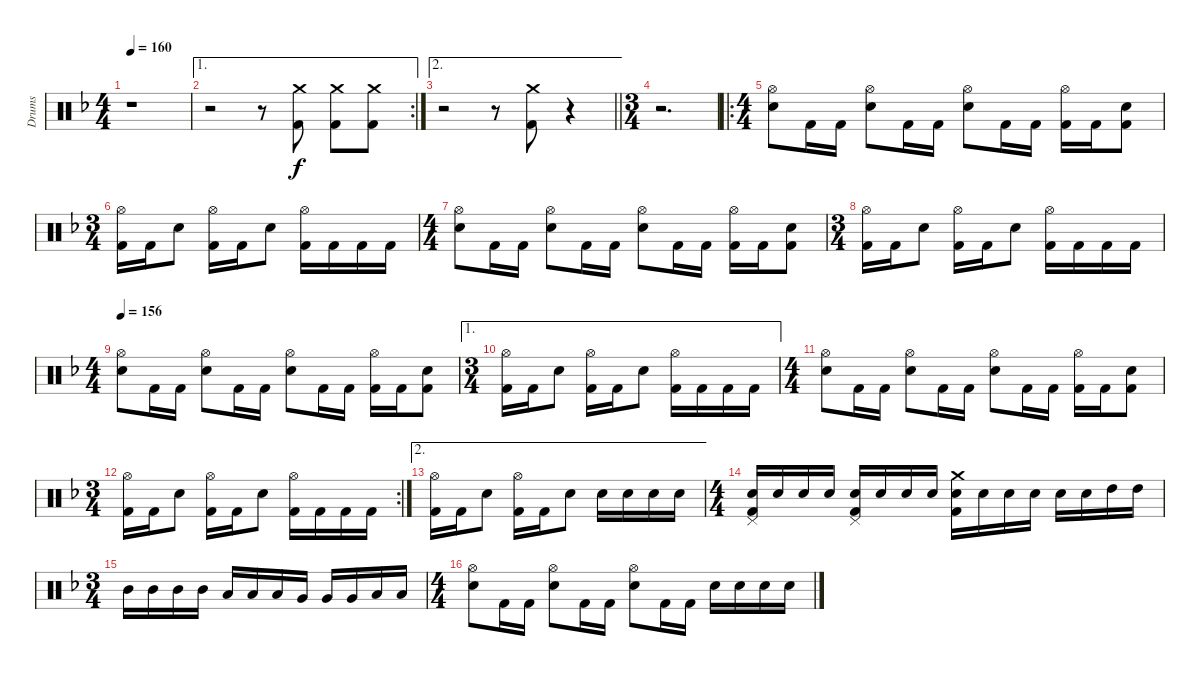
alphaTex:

\track ("Drums" "Drums") {instrument percussion}
\staff {score}
\articulation defaults
\ts (4 4)
\tempo 160
\clef neutral
\ks f
r.1{dy f} |
\ae 1
\rc 2
r.2 r.8 ("Crash medium (hit)" "Kick (hit) 2").8 ("Crash medium (hit)" "Kick (hit) 2").8 ("Crash medium (hit)" "Kick (hit) 2").8 |
\ae 2
\barLineRight lightlight
r.2 r.8 ("Crash medium (hit)" "Kick (hit) 2").8 r.4 |
\ts (3 4)
r.2{d} |
\ro
\ts (4 4)
("Hi-Hat (open)" "Electric Snare (hit)").8 "Kick (hit) 2".16 "Kick (hit) 2".16 ("Hi-Hat (open)" "Electric Snare (hit)").8 "Kick (hit) 2".16 "Kick (hit) 2".16 ("Hi-Hat (open)" "Electric Snare (hit)").8 "Kick (hit) 2".16 "Kick (hit) 2".16 ("Hi-Hat (open)" "Kick (hit) 2").16 "Kick (hit) 2".16 ("Electric Snare (hit)" "Kick (hit) 2").8 |
\ts (3 4)
("Hi-Hat (open)" "Kick (hit) 2").16 "Kick (hit) 2".16 "Electric Snare (hit)".8 ("Hi-Hat (open)" "Kick (hit) 2").16 "Kick (hit) 2".16 "Electric Snare (hit)".8 ("Hi-Hat (open)" "Kick (hit) 2").16 "Kick (hit) 2".16 "Kick (hit) 2".16 "Kick (hit) 2".16 |
\ts (4 4)
("Hi-Hat (open)" "Electric Snare (hit)").8 "Kick (hit) 2".16 "Kick (hit) 2".16 ("Hi-Hat (open)" "Electric Snare (hit)").8 "Kick (hit) 2".16 "Kick (hit) 2".16 ("Hi-Hat (open)" "Electric Snare (hit)").8 "Kick (hit) 2".16 "Kick (hit) 2".16 ("Hi-Hat (open)" "Kick (hit) 2").16 "Kick (hit) 2".16 ("Electric Snare (hit)" "Kick (hit) 2").8 |
\ts (3 4)
("Hi-Hat (open)" "Kick (hit) 2").16 "Kick (hit) 2".16 "Electric Snare (hit)".8 ("Hi-Hat (open)" "Kick (hit) 2").16 "Kick (hit) 2".16 "Electric Snare (hit)".8 ("Hi-Hat (open)" "Kick (hit) 2").16 "Kick (hit) 2".16 "Kick (hit) 2".16 "Kick (hit) 2".16 |
\ts (4 4)
\tempo 156
("Hi-Hat (open)" "Electric Snare (hit)").8 "Kick (hit) 2".16 "Kick (hit) 2".16 ("Hi-Hat (open)" "Electric Snare (hit)").8 "Kick (hit) 2".16 "Kick (hit) 2".16 ("Hi-Hat (open)" "Electric Snare (hit)").8 "Kick (hit) 2".16 "Kick (hit) 2".16 ("Hi-Hat (open)" "Kick (hit) 2").16 "Kick (hit) 2".16 ("Electric Snare (hit)" "Kick (hit) 2").8 |
\ae 1
\ts (3 4)
("Hi-Hat (open)" "Kick (hit) 2").16 "Kick (hit) 2".16 "Electric Snare (hit)".8 ("Hi-Hat (open)" "Kick (hit) 2").16 "Kick (hit) 2".16 "Electric Snare (hit)".8 ("Hi-Hat (open)" "Kick (hit) 2").16 "Kick (hit) 2".16 "Kick (hit) 2".16 "Kick (hit) 2".16 |
\ts (4 4)
("Hi-Hat (open)" "Electric Snare (hit)").8 "Kick (hit) 2".16 "Kick (hit) 2".16 ("Hi-Hat (open)" "Electric Snare (hit)").8 "Kick (hit) 2".16 "Kick (hit) 2".16 ("Hi-Hat (open)" "Electric Snare (hit)").8 "Kick (hit) 2".16 "Kick (hit) 2".16 ("Hi-Hat (open)" "Kick (hit) 2").16 "Kick (hit) 2".16 ("Electric Snare (hit)" "Kick (hit) 2").8 |
\rc 2
\ts (3 4)
("Hi-Hat (open)" "Kick (hit) 2").16 "Kick (hit) 2".16 "Electric Snare (hit)".8 ("Hi-Hat (open)" "Kick (hit) 2").16 "Kick (hit) 2".16 "Electric Snare (hit)".8 ("Hi-Hat (open)" "Kick (hit) 2").16 "Kick (hit) 2".16 "Kick (hit) 2".16 "Kick (hit) 2".16 |
\ae 2
("Hi-Hat (open)" "Kick (hit) 2").16 "Kick (hit) 2".16 "Electric Snare (hit)".8 ("Hi-Hat (open)" "Kick (hit) 2").16 "Kick (hit) 2".16 "Electric Snare (hit)".8 "Electric Snare (hit)".16 "Electric Snare (hit)".16 "Electric Snare (hit)".16 "Electric Snare (hit)".16 |
\ts (4 4)
("Pedal Hi-Hat (hit)" "Electric Snare (hit)" "Kick (hit) 2").16 "Electric Snare (hit)".16 "Electric Snare (hit)".16 "Electric Snare (hit)".16 ("Pedal Hi-Hat (hit)" "Electric Snare (hit)" "Kick (hit) 2").16 "Electric Snare (hit)".16 "Electric Snare (hit)".16 "Electric Snare (hit)".16 ("Crash medium (hit)" "Electric Snare (hit)" "Kick (hit) 2").16 "Electric Snare (hit)".16 "Electric Snare (hit)".16 "Electric Snare (hit)".16 "Electric Snare (hit)".16 "Electric Snare (hit)".16 "High Tom (hit)".16 "High Tom (hit)".16 |
\ts (3 4)
"Mid Tom (hit)".16 "Mid Tom (hit)".16 "Mid Tom (hit)".16 "Mid Tom (hit)".16 "Low Tom (hit)".16 "Low Tom (hit)".16 "Low Tom (hit)".16 "Very Low Tom (hit)".16 "Very Low Tom (hit)".16 "Very Low Tom (hit)".16 "Low Floor Tom (hit)".16 "Low Floor Tom (hit)".16 |
\ts (4 4)
("Hi-Hat (open)" "Electric Snare (hit)").8 "Kick (hit) 2".16 "Kick (hit) 2".16 ("Hi-Hat (open)" "Electric Snare (hit)").8 "Kick (hit) 2".16 "Kick (hit) 2".16 ("Hi-Hat (open)" "Electric Snare (hit)").8 "Kick (hit) 2".16 "Kick (hit) 2".16 "Electric Snare (hit)".16 "Electric Snare (hit)".16 "Electric Snare (hit)".16 "Electric Snare (hit)".16
